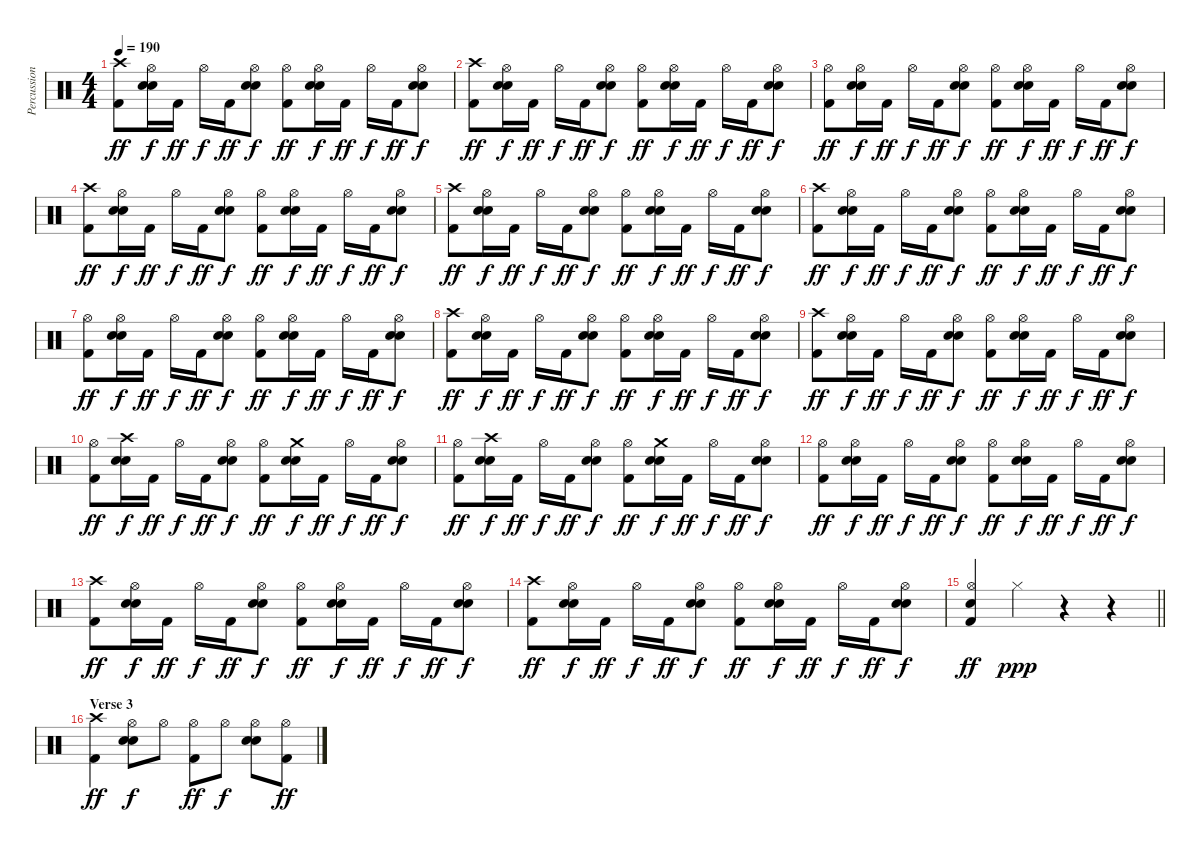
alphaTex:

\track ("Percussion" "Percussion") {instrument percussion}
\staff {score}
\articulation defaults
\ts (4 4)
\tempo 190
\clef neutral
\ks c
("Crash high (hit)" "Kick (hit) 2").8{dy ff} ("Hi-Hat (open)" "Electric Snare (hit)" "Snare (hit) 2").16{dy f} "Kick (hit) 2".16{dy ff} "Hi-Hat (open)".16{dy f} "Kick (hit) 2".16{dy ff} ("Hi-Hat (open)" "Electric Snare (hit)" "Snare (hit) 2").8{dy f} ("Hi-Hat (open)" "Kick (hit) 2").8{dy ff} ("Hi-Hat (open)" "Electric Snare (hit)" "Snare (hit) 2").16{dy f} "Kick (hit) 2".16{dy ff} "Hi-Hat (open)".16{dy f} "Kick (hit) 2".16{dy ff} ("Hi-Hat (open)" "Electric Snare (hit)" "Snare (hit) 2").8{dy f} |
("Crash high (hit)" "Kick (hit) 2").8{dy ff} ("Hi-Hat (open)" "Electric Snare (hit)" "Snare (hit) 2").16{dy f} "Kick (hit) 2".16{dy ff} "Hi-Hat (open)".16{dy f} "Kick (hit) 2".16{dy ff} ("Hi-Hat (open)" "Electric Snare (hit)" "Snare (hit) 2").8{dy f} ("Hi-Hat (open)" "Kick (hit) 2").8{dy ff} ("Hi-Hat (open)" "Electric Snare (hit)" "Snare (hit) 2").16{dy f} "Kick (hit) 2".16{dy ff} "Hi-Hat (open)".16{dy f} "Kick (hit) 2".16{dy ff} ("Hi-Hat (open)" "Electric Snare (hit)" "Snare (hit) 2").8{dy f} |
("Hi-Hat (open)" "Kick (hit) 2").8{dy ff} ("Hi-Hat (open)" "Electric Snare (hit)" "Snare (hit) 2").16{dy f} "Kick (hit) 2".16{dy ff} "Hi-Hat (open)".16{dy f} "Kick (hit) 2".16{dy ff} ("Hi-Hat (open)" "Electric Snare (hit)" "Snare (hit) 2").8{dy f} ("Hi-Hat (open)" "Kick (hit) 2").8{dy ff} ("Hi-Hat (open)" "Electric Snare (hit)" "Snare (hit) 2").16{dy f} "Kick (hit) 2".16{dy ff} "Hi-Hat (open)".16{dy f} "Kick (hit) 2".16{dy ff} ("Hi-Hat (open)" "Electric Snare (hit)" "Snare (hit) 2").8{dy f} |
("Crash high (hit)" "Kick (hit) 2").8{dy ff} ("Hi-Hat (open)" "Electric Snare (hit)" "Snare (hit) 2").16{dy f} "Kick (hit) 2".16{dy ff} "Hi-Hat (open)".16{dy f} "Kick (hit) 2".16{dy ff} ("Hi-Hat (open)" "Electric Snare (hit)" "Snare (hit) 2").8{dy f} ("Hi-Hat (open)" "Kick (hit) 2").8{dy ff} ("Hi-Hat (open)" "Electric Snare (hit)" "Snare (hit) 2").16{dy f} "Kick (hit) 2".16{dy ff} "Hi-Hat (open)".16{dy f} "Kick (hit) 2".16{dy ff} ("Hi-Hat (open)" "Electric Snare (hit)" "Snare (hit) 2").8{dy f} |
("Crash high (hit)" "Kick (hit) 2").8{dy ff} ("Hi-Hat (open)" "Electric Snare (hit)" "Snare (hit) 2").16{dy f} "Kick (hit) 2".16{dy ff} "Hi-Hat (open)".16{dy f} "Kick (hit) 2".16{dy ff} ("Hi-Hat (open)" "Electric Snare (hit)" "Snare (hit) 2").8{dy f} ("Hi-Hat (open)" "Kick (hit) 2").8{dy ff} ("Hi-Hat (open)" "Electric Snare (hit)" "Snare (hit) 2").16{dy f} "Kick (hit) 2".16{dy ff} "Hi-Hat (open)".16{dy f} "Kick (hit) 2".16{dy ff} ("Hi-Hat (open)" "Electric Snare (hit)" "Snare (hit) 2").8{dy f} |
("Crash high (hit)" "Kick (hit) 2").8{dy ff} ("Hi-Hat (open)" "Electric Snare (hit)" "Snare (hit) 2").16{dy f} "Kick (hit) 2".16{dy ff} "Hi-Hat (open)".16{dy f} "Kick (hit) 2".16{dy ff} ("Hi-Hat (open)" "Electric Snare (hit)" "Snare (hit) 2").8{dy f} ("Hi-Hat (open)" "Kick (hit) 2").8{dy ff} ("Hi-Hat (open)" "Electric Snare (hit)" "Snare (hit) 2").16{dy f} "Kick (hit) 2".16{dy ff} "Hi-Hat (open)".16{dy f} "Kick (hit) 2".16{dy ff} ("Hi-Hat (open)" "Electric Snare (hit)" "Snare (hit) 2").8{dy f} |
("Hi-Hat (open)" "Kick (hit) 2").8{dy ff} ("Hi-Hat (open)" "Electric Snare (hit)" "Snare (hit) 2").16{dy f} "Kick (hit) 2".16{dy ff} "Hi-Hat (open)".16{dy f} "Kick (hit) 2".16{dy ff} ("Hi-Hat (open)" "Electric Snare (hit)" "Snare (hit) 2").8{dy f} ("Hi-Hat (open)" "Kick (hit) 2").8{dy ff} ("Hi-Hat (open)" "Electric Snare (hit)" "Snare (hit) 2").16{dy f} "Kick (hit) 2".16{dy ff} "Hi-Hat (open)".16{dy f} "Kick (hit) 2".16{dy ff} ("Hi-Hat (open)" "Electric Snare (hit)" "Snare (hit) 2").8{dy f} |
("Crash high (hit)" "Kick (hit) 2").8{dy ff} ("Hi-Hat (open)" "Electric Snare (hit)" "Snare (hit) 2").16{dy f} "Kick (hit) 2".16{dy ff} "Hi-Hat (open)".16{dy f} "Kick (hit) 2".16{dy ff} ("Hi-Hat (open)" "Electric Snare (hit)" "Snare (hit) 2").8{dy f} ("Hi-Hat (open)" "Kick (hit) 2").8{dy ff} ("Hi-Hat (open)" "Electric Snare (hit)" "Snare (hit) 2").16{dy f} "Kick (hit) 2".16{dy ff} "Hi-Hat (open)".16{dy f} "Kick (hit) 2".16{dy ff} ("Hi-Hat (open)" "Electric Snare (hit)" "Snare (hit) 2").8{dy f} |
("Crash high (hit)" "Kick (hit) 2").8{dy ff} ("Hi-Hat (open)" "Electric Snare (hit)" "Snare (hit) 2").16{dy f} "Kick (hit) 2".16{dy ff} "Hi-Hat (open)".16{dy f} "Kick (hit) 2".16{dy ff} ("Hi-Hat (open)" "Electric Snare (hit)" "Snare (hit) 2").8{dy f} ("Hi-Hat (open)" "Kick (hit) 2").8{dy ff} ("Hi-Hat (open)" "Electric Snare (hit)" "Snare (hit) 2").16{dy f} "Kick (hit) 2".16{dy ff} "Hi-Hat (open)".16{dy f} "Kick (hit) 2".16{dy ff} ("Hi-Hat (open)" "Electric Snare (hit)" "Snare (hit) 2").8{dy f} |
("Hi-Hat (open)" "Kick (hit) 2").8{dy ff} ("Crash high (hit)" "Electric Snare (hit)" "Snare (hit) 2").16{dy f} "Kick (hit) 2".16{dy ff} "Hi-Hat (open)".16{dy f} "Kick (hit) 2".16{dy ff} ("Hi-Hat (open)" "Electric Snare (hit)" "Snare (hit) 2").8{dy f} ("Hi-Hat (open)" "Kick (hit) 2").8{dy ff} ("Crash medium (hit)" "Electric Snare (hit)" "Snare (hit) 2").16{dy f} "Kick (hit) 2".16{dy ff} "Hi-Hat (open)".16{dy f} "Kick (hit) 2".16{dy ff} ("Hi-Hat (open)" "Electric Snare (hit)" "Snare (hit) 2").8{dy f} |
("Hi-Hat (open)" "Kick (hit) 2").8{dy ff} ("Crash high (hit)" "Electric Snare (hit)" "Snare (hit) 2").16{dy f} "Kick (hit) 2".16{dy ff} "Hi-Hat (open)".16{dy f} "Kick (hit) 2".16{dy ff} ("Hi-Hat (open)" "Electric Snare (hit)" "Snare (hit) 2").8{dy f} ("Hi-Hat (open)" "Kick (hit) 2").8{dy ff} ("Crash medium (hit)" "Electric Snare (hit)" "Snare (hit) 2").16{dy f} "Kick (hit) 2".16{dy ff} "Hi-Hat (open)".16{dy f} "Kick (hit) 2".16{dy ff} ("Hi-Hat (open)" "Electric Snare (hit)" "Snare (hit) 2").8{dy f} |
("Hi-Hat (open)" "Kick (hit) 2").8{dy ff} ("Hi-Hat (open)" "Electric Snare (hit)" "Snare (hit) 2").16{dy f} "Kick (hit) 2".16{dy ff} "Hi-Hat (open)".16{dy f} "Kick (hit) 2".16{dy ff} ("Hi-Hat (open)" "Electric Snare (hit)" "Snare (hit) 2").8{dy f} ("Hi-Hat (open)" "Kick (hit) 2").8{dy ff} ("Hi-Hat (open)" "Electric Snare (hit)" "Snare (hit) 2").16{dy f} "Kick (hit) 2".16{dy ff} "Hi-Hat (open)".16{dy f} "Kick (hit) 2".16{dy ff} ("Hi-Hat (open)" "Electric Snare (hit)" "Snare (hit) 2").8{dy f} |
("Crash high (hit)" "Kick (hit) 2").8{dy ff} ("Hi-Hat (open)" "Electric Snare (hit)" "Snare (hit) 2").16{dy f} "Kick (hit) 2".16{dy ff} "Hi-Hat (open)".16{dy f} "Kick (hit) 2".16{dy ff} ("Hi-Hat (open)" "Electric Snare (hit)" "Snare (hit) 2").8{dy f} ("Hi-Hat (open)" "Kick (hit) 2").8{dy ff} ("Hi-Hat (open)" "Electric Snare (hit)" "Snare (hit) 2").16{dy f} "Kick (hit) 2".16{dy ff} "Hi-Hat (open)".16{dy f} "Kick (hit) 2".16{dy ff} ("Hi-Hat (open)" "Electric Snare (hit)" "Snare (hit) 2").8{dy f} |
("Crash high (hit)" "Kick (hit) 2").8{dy ff} ("Hi-Hat (open)" "Electric Snare (hit)" "Snare (hit) 2").16{dy f} "Kick (hit) 2".16{dy ff} "Hi-Hat (open)".16{dy f} "Kick (hit) 2".16{dy ff} ("Hi-Hat (open)" "Electric Snare (hit)" "Snare (hit) 2").8{dy f} ("Hi-Hat (open)" "Kick (hit) 2").8{dy ff} ("Hi-Hat (open)" "Electric Snare (hit)" "Snare (hit) 2").16{dy f} "Kick (hit) 2".16{dy ff} "Hi-Hat (open)".16{dy f} "Kick (hit) 2".16{dy ff} ("Hi-Hat (open)" "Electric Snare (hit)" "Snare (hit) 2").8{dy f} |
\barLineRight lightlight
("Hi-Hat (open)" "Snare (hit) 2" "Kick (hit) 2").4{dy ff} "Hi-Hat (closed)".4{dy ppp} r.4 r.4 |
\section ("" "Verse 3")
("Crash high (hit)" "Kick (hit) 2").4{dy ff} ("Hi-Hat (open)" "Electric Snare (hit)" "Snare (hit) 2").8{dy f} "Hi-Hat (open)".8 ("Hi-Hat (open)" "Kick (hit) 2").8{dy ff} "Hi-Hat (open)".8{dy f} ("Hi-Hat (open)" "Electric Snare (hit)" "Snare (hit) 2").8 ("Hi-Hat (open)" "Kick (hit) 2").8{dy ff}
